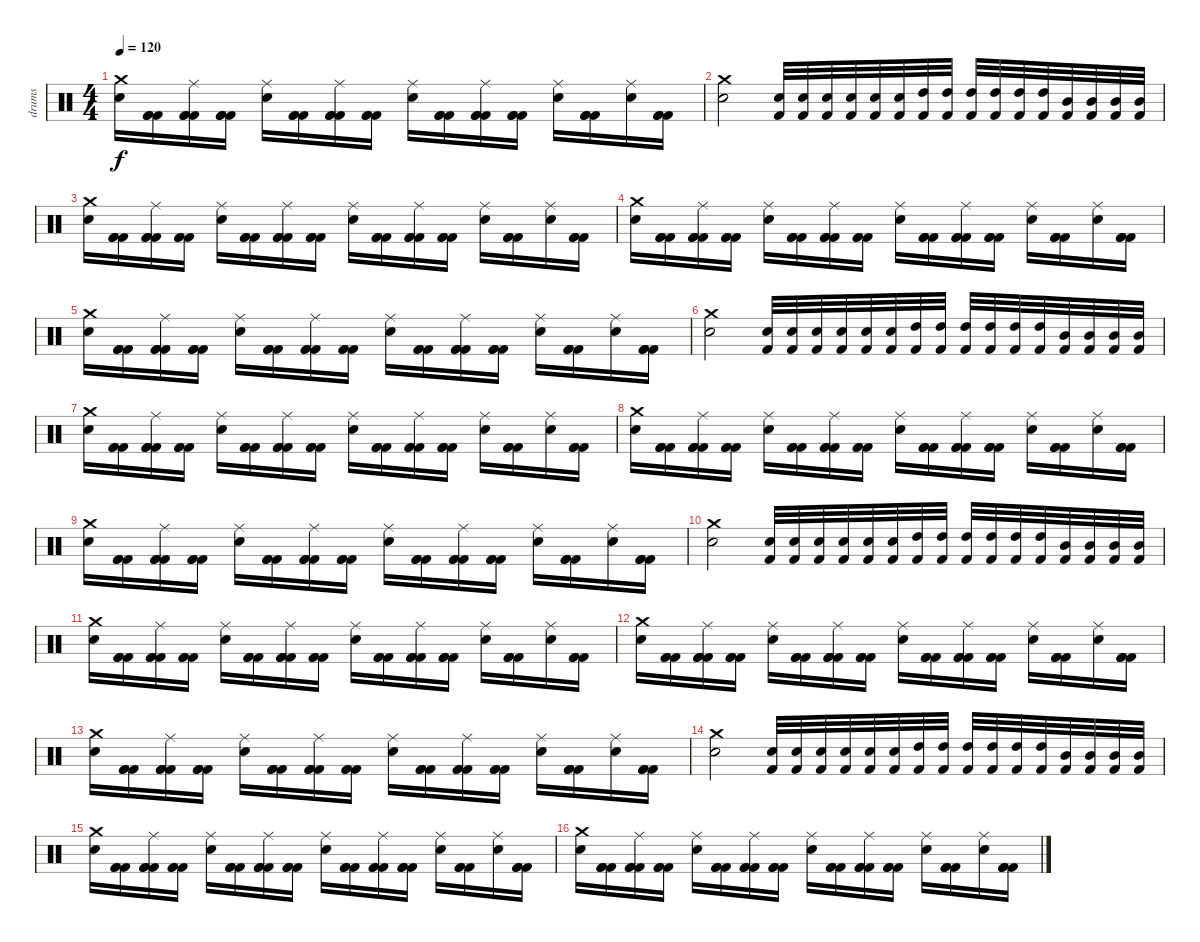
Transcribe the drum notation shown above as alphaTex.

\track ("drums" "drums") {instrument percussion}
\staff {score}
\articulation defaults
\ts (4 4)
\tempo 120
\clef neutral
\ks c
("Crash medium (hit)" "Electric Snare (hit)").16{dy f} ("Kick (hit) 2" "Kick (hit) 2" "Kick (hit) 2").16 ("Ride (middle)" "Kick (hit) 2" "Kick (hit) 2" "Kick (hit) 2").16 ("Kick (hit) 2" "Kick (hit) 2" "Kick (hit) 2").16 ("Ride (middle)" "Electric Snare (hit)").16 ("Kick (hit) 2" "Kick (hit) 2" "Kick (hit) 2").16 ("Ride (middle)" "Kick (hit) 2" "Kick (hit) 2" "Kick (hit) 2").16 ("Kick (hit) 2" "Kick (hit) 2" "Kick (hit) 2").16 ("Ride (middle)" "Electric Snare (hit)").16 ("Kick (hit) 2" "Kick (hit) 2" "Kick (hit) 2").16 ("Ride (middle)" "Kick (hit) 2" "Kick (hit) 2" "Kick (hit) 2").16 ("Kick (hit) 2" "Kick (hit) 2" "Kick (hit) 2").16 ("Ride (middle)" "Electric Snare (hit)").16 ("Kick (hit) 2" "Kick (hit) 2" "Kick (hit) 2").16 ("Ride (middle)" "Electric Snare (hit)").16 ("Kick (hit) 2" "Kick (hit) 2" "Kick (hit) 2").16 |
("Crash medium (hit)" "Electric Snare (hit)").2 ("Electric Snare (hit)" "Kick (hit) 2").32 ("Electric Snare (hit)" "Kick (hit) 2").32 ("Electric Snare (hit)" "Kick (hit) 2").32 ("Electric Snare (hit)" "Kick (hit) 2").32 ("Electric Snare (hit)" "Kick (hit) 2").32 ("Electric Snare (hit)" "Kick (hit) 2").32 ("High Tom (hit)" "Kick (hit) 2").32 ("High Tom (hit)" "Kick (hit) 2").32 ("High Tom (hit)" "Kick (hit) 2").32 ("High Tom (hit)" "Kick (hit) 2").32 ("High Tom (hit)" "Kick (hit) 2").32 ("High Tom (hit)" "Kick (hit) 2").32 ("Mid Tom (hit)" "Kick (hit) 2").32 ("Mid Tom (hit)" "Kick (hit) 2").32 ("Mid Tom (hit)" "Kick (hit) 2").32 ("Mid Tom (hit)" "Kick (hit) 2").32 |
("Crash medium (hit)" "Electric Snare (hit)").16 ("Kick (hit) 2" "Kick (hit) 2" "Kick (hit) 2").16 ("Ride (middle)" "Kick (hit) 2" "Kick (hit) 2" "Kick (hit) 2").16 ("Kick (hit) 2" "Kick (hit) 2" "Kick (hit) 2").16 ("Ride (middle)" "Electric Snare (hit)").16 ("Kick (hit) 2" "Kick (hit) 2" "Kick (hit) 2").16 ("Ride (middle)" "Kick (hit) 2" "Kick (hit) 2" "Kick (hit) 2").16 ("Kick (hit) 2" "Kick (hit) 2" "Kick (hit) 2").16 ("Ride (middle)" "Electric Snare (hit)").16 ("Kick (hit) 2" "Kick (hit) 2" "Kick (hit) 2").16 ("Ride (middle)" "Kick (hit) 2" "Kick (hit) 2" "Kick (hit) 2").16 ("Kick (hit) 2" "Kick (hit) 2" "Kick (hit) 2").16 ("Ride (middle)" "Electric Snare (hit)").16 ("Kick (hit) 2" "Kick (hit) 2" "Kick (hit) 2").16 ("Ride (middle)" "Electric Snare (hit)").16 ("Kick (hit) 2" "Kick (hit) 2" "Kick (hit) 2").16 |
("Crash medium (hit)" "Electric Snare (hit)").16 ("Kick (hit) 2" "Kick (hit) 2" "Kick (hit) 2").16 ("Ride (middle)" "Kick (hit) 2" "Kick (hit) 2" "Kick (hit) 2").16 ("Kick (hit) 2" "Kick (hit) 2" "Kick (hit) 2").16 ("Ride (middle)" "Electric Snare (hit)").16 ("Kick (hit) 2" "Kick (hit) 2" "Kick (hit) 2").16 ("Ride (middle)" "Kick (hit) 2" "Kick (hit) 2" "Kick (hit) 2").16 ("Kick (hit) 2" "Kick (hit) 2" "Kick (hit) 2").16 ("Ride (middle)" "Electric Snare (hit)").16 ("Kick (hit) 2" "Kick (hit) 2" "Kick (hit) 2").16 ("Ride (middle)" "Kick (hit) 2" "Kick (hit) 2" "Kick (hit) 2").16 ("Kick (hit) 2" "Kick (hit) 2" "Kick (hit) 2").16 ("Ride (middle)" "Electric Snare (hit)").16 ("Kick (hit) 2" "Kick (hit) 2" "Kick (hit) 2").16 ("Ride (middle)" "Electric Snare (hit)").16 ("Kick (hit) 2" "Kick (hit) 2" "Kick (hit) 2").16 |
("Crash medium (hit)" "Electric Snare (hit)").16 ("Kick (hit) 2" "Kick (hit) 2" "Kick (hit) 2").16 ("Ride (middle)" "Kick (hit) 2" "Kick (hit) 2" "Kick (hit) 2").16 ("Kick (hit) 2" "Kick (hit) 2" "Kick (hit) 2").16 ("Ride (middle)" "Electric Snare (hit)").16 ("Kick (hit) 2" "Kick (hit) 2" "Kick (hit) 2").16 ("Ride (middle)" "Kick (hit) 2" "Kick (hit) 2" "Kick (hit) 2").16 ("Kick (hit) 2" "Kick (hit) 2" "Kick (hit) 2").16 ("Ride (middle)" "Electric Snare (hit)").16 ("Kick (hit) 2" "Kick (hit) 2" "Kick (hit) 2").16 ("Ride (middle)" "Kick (hit) 2" "Kick (hit) 2" "Kick (hit) 2").16 ("Kick (hit) 2" "Kick (hit) 2" "Kick (hit) 2").16 ("Ride (middle)" "Electric Snare (hit)").16 ("Kick (hit) 2" "Kick (hit) 2" "Kick (hit) 2").16 ("Ride (middle)" "Electric Snare (hit)").16 ("Kick (hit) 2" "Kick (hit) 2" "Kick (hit) 2").16 |
("Crash medium (hit)" "Electric Snare (hit)").2 ("Electric Snare (hit)" "Kick (hit) 2").32 ("Electric Snare (hit)" "Kick (hit) 2").32 ("Electric Snare (hit)" "Kick (hit) 2").32 ("Electric Snare (hit)" "Kick (hit) 2").32 ("Electric Snare (hit)" "Kick (hit) 2").32 ("Electric Snare (hit)" "Kick (hit) 2").32 ("High Tom (hit)" "Kick (hit) 2").32 ("High Tom (hit)" "Kick (hit) 2").32 ("High Tom (hit)" "Kick (hit) 2").32 ("High Tom (hit)" "Kick (hit) 2").32 ("High Tom (hit)" "Kick (hit) 2").32 ("High Tom (hit)" "Kick (hit) 2").32 ("Mid Tom (hit)" "Kick (hit) 2").32 ("Mid Tom (hit)" "Kick (hit) 2").32 ("Mid Tom (hit)" "Kick (hit) 2").32 ("Mid Tom (hit)" "Kick (hit) 2").32 |
("Crash medium (hit)" "Electric Snare (hit)").16 ("Kick (hit) 2" "Kick (hit) 2" "Kick (hit) 2").16 ("Ride (middle)" "Kick (hit) 2" "Kick (hit) 2" "Kick (hit) 2").16 ("Kick (hit) 2" "Kick (hit) 2" "Kick (hit) 2").16 ("Ride (middle)" "Electric Snare (hit)").16 ("Kick (hit) 2" "Kick (hit) 2" "Kick (hit) 2").16 ("Ride (middle)" "Kick (hit) 2" "Kick (hit) 2" "Kick (hit) 2").16 ("Kick (hit) 2" "Kick (hit) 2" "Kick (hit) 2").16 ("Ride (middle)" "Electric Snare (hit)").16 ("Kick (hit) 2" "Kick (hit) 2" "Kick (hit) 2").16 ("Ride (middle)" "Kick (hit) 2" "Kick (hit) 2" "Kick (hit) 2").16 ("Kick (hit) 2" "Kick (hit) 2" "Kick (hit) 2").16 ("Ride (middle)" "Electric Snare (hit)").16 ("Kick (hit) 2" "Kick (hit) 2" "Kick (hit) 2").16 ("Ride (middle)" "Electric Snare (hit)").16 ("Kick (hit) 2" "Kick (hit) 2" "Kick (hit) 2").16 |
("Crash medium (hit)" "Electric Snare (hit)").16 ("Kick (hit) 2" "Kick (hit) 2" "Kick (hit) 2").16 ("Ride (middle)" "Kick (hit) 2" "Kick (hit) 2" "Kick (hit) 2").16 ("Kick (hit) 2" "Kick (hit) 2" "Kick (hit) 2").16 ("Ride (middle)" "Electric Snare (hit)").16 ("Kick (hit) 2" "Kick (hit) 2" "Kick (hit) 2").16 ("Ride (middle)" "Kick (hit) 2" "Kick (hit) 2" "Kick (hit) 2").16 ("Kick (hit) 2" "Kick (hit) 2" "Kick (hit) 2").16 ("Ride (middle)" "Electric Snare (hit)").16 ("Kick (hit) 2" "Kick (hit) 2" "Kick (hit) 2").16 ("Ride (middle)" "Kick (hit) 2" "Kick (hit) 2" "Kick (hit) 2").16 ("Kick (hit) 2" "Kick (hit) 2" "Kick (hit) 2").16 ("Ride (middle)" "Electric Snare (hit)").16 ("Kick (hit) 2" "Kick (hit) 2" "Kick (hit) 2").16 ("Ride (middle)" "Electric Snare (hit)").16 ("Kick (hit) 2" "Kick (hit) 2" "Kick (hit) 2").16 |
("Crash medium (hit)" "Electric Snare (hit)").16 ("Kick (hit) 2" "Kick (hit) 2" "Kick (hit) 2").16 ("Ride (middle)" "Kick (hit) 2" "Kick (hit) 2" "Kick (hit) 2").16 ("Kick (hit) 2" "Kick (hit) 2" "Kick (hit) 2").16 ("Ride (middle)" "Electric Snare (hit)").16 ("Kick (hit) 2" "Kick (hit) 2" "Kick (hit) 2").16 ("Ride (middle)" "Kick (hit) 2" "Kick (hit) 2" "Kick (hit) 2").16 ("Kick (hit) 2" "Kick (hit) 2" "Kick (hit) 2").16 ("Ride (middle)" "Electric Snare (hit)").16 ("Kick (hit) 2" "Kick (hit) 2" "Kick (hit) 2").16 ("Ride (middle)" "Kick (hit) 2" "Kick (hit) 2" "Kick (hit) 2").16 ("Kick (hit) 2" "Kick (hit) 2" "Kick (hit) 2").16 ("Ride (middle)" "Electric Snare (hit)").16 ("Kick (hit) 2" "Kick (hit) 2" "Kick (hit) 2").16 ("Ride (middle)" "Electric Snare (hit)").16 ("Kick (hit) 2" "Kick (hit) 2" "Kick (hit) 2").16 |
("Crash medium (hit)" "Electric Snare (hit)").2 ("Electric Snare (hit)" "Kick (hit) 2").32 ("Electric Snare (hit)" "Kick (hit) 2").32 ("Electric Snare (hit)" "Kick (hit) 2").32 ("Electric Snare (hit)" "Kick (hit) 2").32 ("Electric Snare (hit)" "Kick (hit) 2").32 ("Electric Snare (hit)" "Kick (hit) 2").32 ("High Tom (hit)" "Kick (hit) 2").32 ("High Tom (hit)" "Kick (hit) 2").32 ("High Tom (hit)" "Kick (hit) 2").32 ("High Tom (hit)" "Kick (hit) 2").32 ("High Tom (hit)" "Kick (hit) 2").32 ("High Tom (hit)" "Kick (hit) 2").32 ("Mid Tom (hit)" "Kick (hit) 2").32 ("Mid Tom (hit)" "Kick (hit) 2").32 ("Mid Tom (hit)" "Kick (hit) 2").32 ("Mid Tom (hit)" "Kick (hit) 2").32 |
("Crash medium (hit)" "Electric Snare (hit)").16 ("Kick (hit) 2" "Kick (hit) 2" "Kick (hit) 2").16 ("Ride (middle)" "Kick (hit) 2" "Kick (hit) 2" "Kick (hit) 2").16 ("Kick (hit) 2" "Kick (hit) 2" "Kick (hit) 2").16 ("Ride (middle)" "Electric Snare (hit)").16 ("Kick (hit) 2" "Kick (hit) 2" "Kick (hit) 2").16 ("Ride (middle)" "Kick (hit) 2" "Kick (hit) 2" "Kick (hit) 2").16 ("Kick (hit) 2" "Kick (hit) 2" "Kick (hit) 2").16 ("Ride (middle)" "Electric Snare (hit)").16 ("Kick (hit) 2" "Kick (hit) 2" "Kick (hit) 2").16 ("Ride (middle)" "Kick (hit) 2" "Kick (hit) 2" "Kick (hit) 2").16 ("Kick (hit) 2" "Kick (hit) 2" "Kick (hit) 2").16 ("Ride (middle)" "Electric Snare (hit)").16 ("Kick (hit) 2" "Kick (hit) 2" "Kick (hit) 2").16 ("Ride (middle)" "Electric Snare (hit)").16 ("Kick (hit) 2" "Kick (hit) 2" "Kick (hit) 2").16 |
("Crash medium (hit)" "Electric Snare (hit)").16 ("Kick (hit) 2" "Kick (hit) 2" "Kick (hit) 2").16 ("Ride (middle)" "Kick (hit) 2" "Kick (hit) 2" "Kick (hit) 2").16 ("Kick (hit) 2" "Kick (hit) 2" "Kick (hit) 2").16 ("Ride (middle)" "Electric Snare (hit)").16 ("Kick (hit) 2" "Kick (hit) 2" "Kick (hit) 2").16 ("Ride (middle)" "Kick (hit) 2" "Kick (hit) 2" "Kick (hit) 2").16 ("Kick (hit) 2" "Kick (hit) 2" "Kick (hit) 2").16 ("Ride (middle)" "Electric Snare (hit)").16 ("Kick (hit) 2" "Kick (hit) 2" "Kick (hit) 2").16 ("Ride (middle)" "Kick (hit) 2" "Kick (hit) 2" "Kick (hit) 2").16 ("Kick (hit) 2" "Kick (hit) 2" "Kick (hit) 2").16 ("Ride (middle)" "Electric Snare (hit)").16 ("Kick (hit) 2" "Kick (hit) 2" "Kick (hit) 2").16 ("Ride (middle)" "Electric Snare (hit)").16 ("Kick (hit) 2" "Kick (hit) 2" "Kick (hit) 2").16 |
("Crash medium (hit)" "Electric Snare (hit)").16 ("Kick (hit) 2" "Kick (hit) 2" "Kick (hit) 2").16 ("Ride (middle)" "Kick (hit) 2" "Kick (hit) 2" "Kick (hit) 2").16 ("Kick (hit) 2" "Kick (hit) 2" "Kick (hit) 2").16 ("Ride (middle)" "Electric Snare (hit)").16 ("Kick (hit) 2" "Kick (hit) 2" "Kick (hit) 2").16 ("Ride (middle)" "Kick (hit) 2" "Kick (hit) 2" "Kick (hit) 2").16 ("Kick (hit) 2" "Kick (hit) 2" "Kick (hit) 2").16 ("Ride (middle)" "Electric Snare (hit)").16 ("Kick (hit) 2" "Kick (hit) 2" "Kick (hit) 2").16 ("Ride (middle)" "Kick (hit) 2" "Kick (hit) 2" "Kick (hit) 2").16 ("Kick (hit) 2" "Kick (hit) 2" "Kick (hit) 2").16 ("Ride (middle)" "Electric Snare (hit)").16 ("Kick (hit) 2" "Kick (hit) 2" "Kick (hit) 2").16 ("Ride (middle)" "Electric Snare (hit)").16 ("Kick (hit) 2" "Kick (hit) 2" "Kick (hit) 2").16 |
("Crash medium (hit)" "Electric Snare (hit)").2 ("Electric Snare (hit)" "Kick (hit) 2").32 ("Electric Snare (hit)" "Kick (hit) 2").32 ("Electric Snare (hit)" "Kick (hit) 2").32 ("Electric Snare (hit)" "Kick (hit) 2").32 ("Electric Snare (hit)" "Kick (hit) 2").32 ("Electric Snare (hit)" "Kick (hit) 2").32 ("High Tom (hit)" "Kick (hit) 2").32 ("High Tom (hit)" "Kick (hit) 2").32 ("High Tom (hit)" "Kick (hit) 2").32 ("High Tom (hit)" "Kick (hit) 2").32 ("High Tom (hit)" "Kick (hit) 2").32 ("High Tom (hit)" "Kick (hit) 2").32 ("Mid Tom (hit)" "Kick (hit) 2").32 ("Mid Tom (hit)" "Kick (hit) 2").32 ("Mid Tom (hit)" "Kick (hit) 2").32 ("Mid Tom (hit)" "Kick (hit) 2").32 |
("Crash medium (hit)" "Electric Snare (hit)").16 ("Kick (hit) 2" "Kick (hit) 2" "Kick (hit) 2").16 ("Ride (middle)" "Kick (hit) 2" "Kick (hit) 2" "Kick (hit) 2").16 ("Kick (hit) 2" "Kick (hit) 2" "Kick (hit) 2").16 ("Ride (middle)" "Electric Snare (hit)").16 ("Kick (hit) 2" "Kick (hit) 2" "Kick (hit) 2").16 ("Ride (middle)" "Kick (hit) 2" "Kick (hit) 2" "Kick (hit) 2").16 ("Kick (hit) 2" "Kick (hit) 2" "Kick (hit) 2").16 ("Ride (middle)" "Electric Snare (hit)").16 ("Kick (hit) 2" "Kick (hit) 2" "Kick (hit) 2").16 ("Ride (middle)" "Kick (hit) 2" "Kick (hit) 2" "Kick (hit) 2").16 ("Kick (hit) 2" "Kick (hit) 2" "Kick (hit) 2").16 ("Ride (middle)" "Electric Snare (hit)").16 ("Kick (hit) 2" "Kick (hit) 2" "Kick (hit) 2").16 ("Ride (middle)" "Electric Snare (hit)").16 ("Kick (hit) 2" "Kick (hit) 2" "Kick (hit) 2").16 |
("Crash medium (hit)" "Electric Snare (hit)").16 ("Kick (hit) 2" "Kick (hit) 2" "Kick (hit) 2").16 ("Ride (middle)" "Kick (hit) 2" "Kick (hit) 2" "Kick (hit) 2").16 ("Kick (hit) 2" "Kick (hit) 2" "Kick (hit) 2").16 ("Ride (middle)" "Electric Snare (hit)").16 ("Kick (hit) 2" "Kick (hit) 2" "Kick (hit) 2").16 ("Ride (middle)" "Kick (hit) 2" "Kick (hit) 2" "Kick (hit) 2").16 ("Kick (hit) 2" "Kick (hit) 2" "Kick (hit) 2").16 ("Ride (middle)" "Electric Snare (hit)").16 ("Kick (hit) 2" "Kick (hit) 2" "Kick (hit) 2").16 ("Ride (middle)" "Kick (hit) 2" "Kick (hit) 2" "Kick (hit) 2").16 ("Kick (hit) 2" "Kick (hit) 2" "Kick (hit) 2").16 ("Ride (middle)" "Electric Snare (hit)").16 ("Kick (hit) 2" "Kick (hit) 2" "Kick (hit) 2").16 ("Ride (middle)" "Electric Snare (hit)").16 ("Kick (hit) 2" "Kick (hit) 2" "Kick (hit) 2").16
